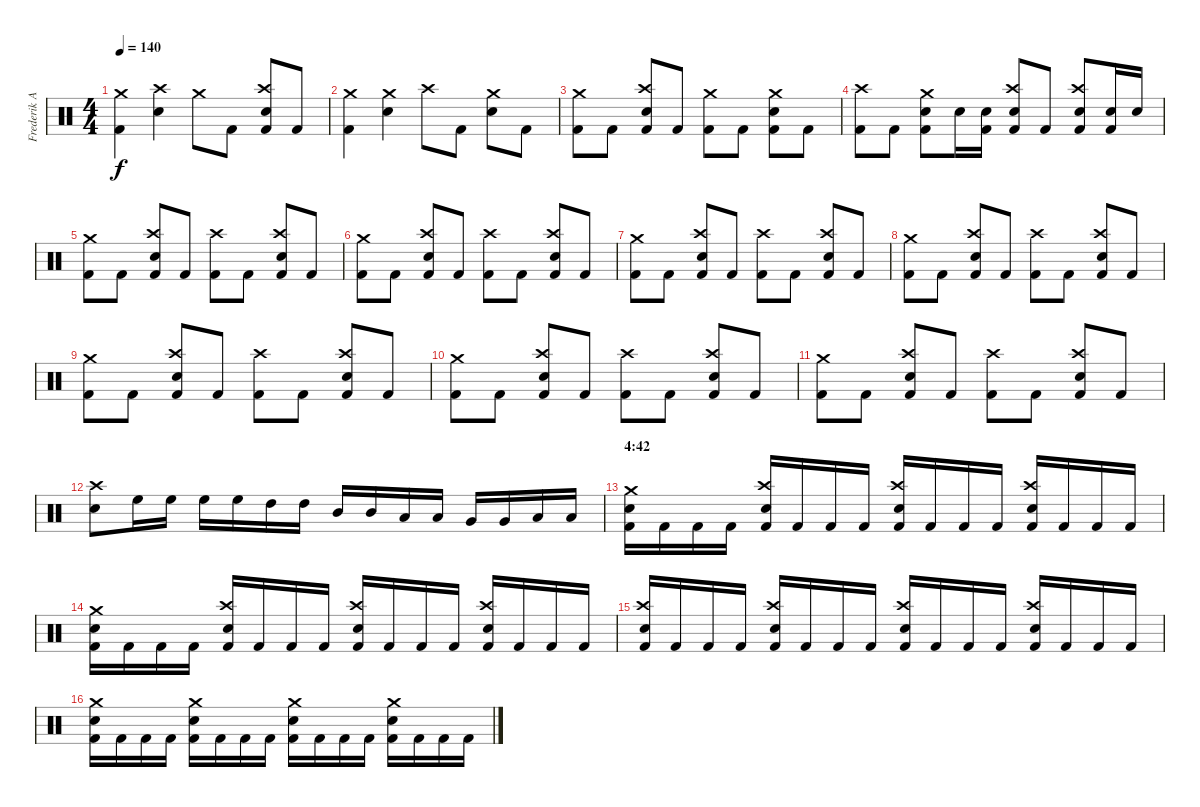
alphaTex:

\track ("Frederik Anderson" "Frederik A") {instrument percussion}
\staff {score}
\articulation defaults
\ts (4 4)
\tempo 140
\clef neutral
\ks c
("Crash medium (hit)" "Kick (hit) 2").4{dy f} ("Crash high (hit)" "Electric Snare (hit)").4 "Crash medium (hit)".8 "Kick (hit) 2".8 ("Crash high (hit)" "Electric Snare (hit)" "Kick (hit) 2").8 "Kick (hit) 2".8 |
("Crash medium (hit)" "Kick (hit) 2").4 ("Crash medium (hit)" "Electric Snare (hit)").4 "Crash high (hit)".8 "Kick (hit) 2".8 ("Crash medium (hit)" "Electric Snare (hit)").8 "Kick (hit) 2".8 |
("Crash medium (hit)" "Kick (hit) 2").8 "Kick (hit) 2".8 ("Crash high (hit)" "Electric Snare (hit)" "Kick (hit) 2").8 "Kick (hit) 2".8 ("Crash medium (hit)" "Kick (hit) 2").8 "Kick (hit) 2".8 ("Crash medium (hit)" "Electric Snare (hit)" "Kick (hit) 2").8 "Kick (hit) 2".8 |
("Crash high (hit)" "Kick (hit) 2").8 "Kick (hit) 2".8 ("Crash medium (hit)" "Electric Snare (hit)" "Kick (hit) 2").8 "Electric Snare (hit)".16 ("Electric Snare (hit)" "Kick (hit) 2").16 ("Crash high (hit)" "Electric Snare (hit)" "Kick (hit) 2").8 "Kick (hit) 2".8 ("Crash high (hit)" "Electric Snare (hit)" "Kick (hit) 2").8 ("Electric Snare (hit)" "Kick (hit) 2").16 "Electric Snare (hit)".16 |
("Crash medium (hit)" "Kick (hit) 2").8 "Kick (hit) 2".8 ("Crash high (hit)" "Electric Snare (hit)" "Kick (hit) 2").8 "Kick (hit) 2".8 ("Crash high (hit)" "Kick (hit) 2").8 "Kick (hit) 2".8 ("Crash high (hit)" "Electric Snare (hit)" "Kick (hit) 2").8 "Kick (hit) 2".8 |
("Crash medium (hit)" "Kick (hit) 2").8 "Kick (hit) 2".8 ("Crash high (hit)" "Electric Snare (hit)" "Kick (hit) 2").8 "Kick (hit) 2".8 ("Crash high (hit)" "Kick (hit) 2").8 "Kick (hit) 2".8 ("Crash high (hit)" "Electric Snare (hit)" "Kick (hit) 2").8 "Kick (hit) 2".8 |
("Crash medium (hit)" "Kick (hit) 2").8 "Kick (hit) 2".8 ("Crash high (hit)" "Electric Snare (hit)" "Kick (hit) 2").8 "Kick (hit) 2".8 ("Crash high (hit)" "Kick (hit) 2").8 "Kick (hit) 2".8 ("Crash high (hit)" "Electric Snare (hit)" "Kick (hit) 2").8 "Kick (hit) 2".8 |
("Crash medium (hit)" "Kick (hit) 2").8 "Kick (hit) 2".8 ("Crash high (hit)" "Electric Snare (hit)" "Kick (hit) 2").8 "Kick (hit) 2".8 ("Crash high (hit)" "Kick (hit) 2").8 "Kick (hit) 2".8 ("Crash high (hit)" "Electric Snare (hit)" "Kick (hit) 2").8 "Kick (hit) 2".8 |
("Crash medium (hit)" "Kick (hit) 2").8 "Kick (hit) 2".8 ("Crash high (hit)" "Electric Snare (hit)" "Kick (hit) 2").8 "Kick (hit) 2".8 ("Crash high (hit)" "Kick (hit) 2").8 "Kick (hit) 2".8 ("Crash high (hit)" "Electric Snare (hit)" "Kick (hit) 2").8 "Kick (hit) 2".8 |
("Crash medium (hit)" "Kick (hit) 2").8 "Kick (hit) 2".8 ("Crash high (hit)" "Electric Snare (hit)" "Kick (hit) 2").8 "Kick (hit) 2".8 ("Crash high (hit)" "Kick (hit) 2").8 "Kick (hit) 2".8 ("Crash high (hit)" "Electric Snare (hit)" "Kick (hit) 2").8 "Kick (hit) 2".8 |
("Crash medium (hit)" "Kick (hit) 2").8 "Kick (hit) 2".8 ("Crash high (hit)" "Electric Snare (hit)" "Kick (hit) 2").8 "Kick (hit) 2".8 ("Crash high (hit)" "Kick (hit) 2").8 "Kick (hit) 2".8 ("Crash high (hit)" "Electric Snare (hit)" "Kick (hit) 2").8 "Kick (hit) 2".8 |
("Crash high (hit)" "Electric Snare (hit)").8 "High Floor Tom (hit)".16 "High Floor Tom (hit)".16 "High Floor Tom (hit)".16 "High Floor Tom (hit)".16 "High Tom (hit)".16 "High Tom (hit)".16 "Mid Tom (hit)".16 "Mid Tom (hit)".16 "Low Tom (hit)".16 "Low Tom (hit)".16 "Very Low Tom (hit)".16 "Very Low Tom (hit)".16 "Low Floor Tom (hit)".16 "Low Floor Tom (hit)".16 |
\section ("" "4:42")
("Crash medium (hit)" "Electric Snare (hit)" "Kick (hit) 2").16 "Kick (hit) 2".16 "Kick (hit) 2".16 "Kick (hit) 2".16 ("Crash high (hit)" "Electric Snare (hit)" "Kick (hit) 2").16 "Kick (hit) 2".16 "Kick (hit) 2".16 "Kick (hit) 2".16 ("Crash high (hit)" "Electric Snare (hit)" "Kick (hit) 2").16 "Kick (hit) 2".16 "Kick (hit) 2".16 "Kick (hit) 2".16 ("Crash high (hit)" "Electric Snare (hit)" "Kick (hit) 2").16 "Kick (hit) 2".16 "Kick (hit) 2".16 "Kick (hit) 2".16 |
("Crash medium (hit)" "Electric Snare (hit)" "Kick (hit) 2").16 "Kick (hit) 2".16 "Kick (hit) 2".16 "Kick (hit) 2".16 ("Crash high (hit)" "Electric Snare (hit)" "Kick (hit) 2").16 "Kick (hit) 2".16 "Kick (hit) 2".16 "Kick (hit) 2".16 ("Crash high (hit)" "Electric Snare (hit)" "Kick (hit) 2").16 "Kick (hit) 2".16 "Kick (hit) 2".16 "Kick (hit) 2".16 ("Crash high (hit)" "Electric Snare (hit)" "Kick (hit) 2").16 "Kick (hit) 2".16 "Kick (hit) 2".16 "Kick (hit) 2".16 |
("Crash high (hit)" "Electric Snare (hit)" "Kick (hit) 2").16 "Kick (hit) 2".16 "Kick (hit) 2".16 "Kick (hit) 2".16 ("Crash high (hit)" "Electric Snare (hit)" "Kick (hit) 2").16 "Kick (hit) 2".16 "Kick (hit) 2".16 "Kick (hit) 2".16 ("Crash high (hit)" "Electric Snare (hit)" "Kick (hit) 2").16 "Kick (hit) 2".16 "Kick (hit) 2".16 "Kick (hit) 2".16 ("Crash high (hit)" "Electric Snare (hit)" "Kick (hit) 2").16 "Kick (hit) 2".16 "Kick (hit) 2".16 "Kick (hit) 2".16 |
("Crash medium (hit)" "Electric Snare (hit)" "Kick (hit) 2").16 "Kick (hit) 2".16 "Kick (hit) 2".16 "Kick (hit) 2".16 ("Crash medium (hit)" "Electric Snare (hit)" "Kick (hit) 2").16 "Kick (hit) 2".16 "Kick (hit) 2".16 "Kick (hit) 2".16 ("Crash medium (hit)" "Electric Snare (hit)" "Kick (hit) 2").16 "Kick (hit) 2".16 "Kick (hit) 2".16 "Kick (hit) 2".16 ("Crash medium (hit)" "Electric Snare (hit)" "Kick (hit) 2").16 "Kick (hit) 2".16 "Kick (hit) 2".16 "Kick (hit) 2".16
